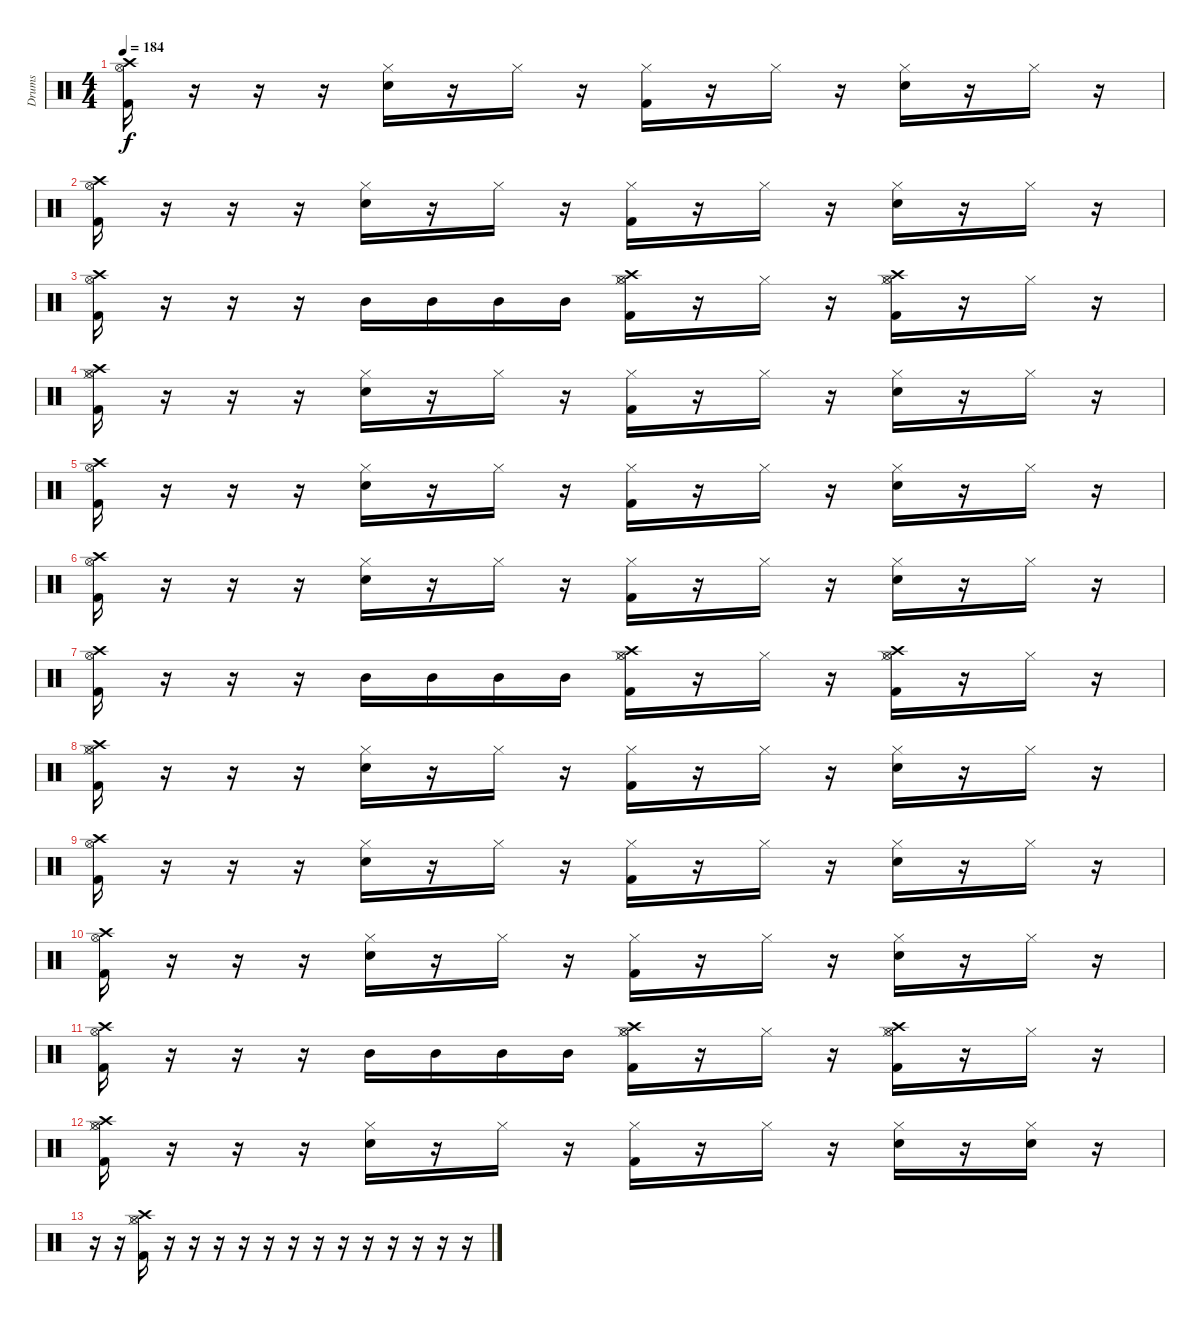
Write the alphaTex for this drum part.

\track ("Drums" "Drums") {instrument percussion}
\staff {score}
\articulation defaults
\ts (4 4)
\tempo 184
\clef neutral
\ks c
("Kick (hit) 2" "Hi-Hat (open)" "Crash high (hit)").16{dy f} r.16 r.16 r.16 ("Electric Snare (hit)" "Hi-Hat (closed)").16 r.16 "Hi-Hat (closed)".16 r.16 ("Kick (hit) 2" "Hi-Hat (closed)").16 r.16 "Hi-Hat (closed)".16 r.16 ("Electric Snare (hit)" "Hi-Hat (closed)").16 r.16 "Hi-Hat (closed)".16 r.16 |
("Kick (hit) 2" "Hi-Hat (open)" "Crash high (hit)").16 r.16 r.16 r.16 ("Electric Snare (hit)" "Hi-Hat (closed)").16 r.16 "Hi-Hat (closed)".16 r.16 ("Kick (hit) 2" "Hi-Hat (closed)").16 r.16 "Hi-Hat (closed)".16 r.16 ("Electric Snare (hit)" "Hi-Hat (closed)").16 r.16 "Hi-Hat (closed)".16 r.16 |
("Kick (hit) 2" "Hi-Hat (open)" "Crash high (hit)").16 r.16 r.16 r.16 "Mid Tom (hit)".16 "Mid Tom (hit)".16 "Mid Tom (hit)".16 "Mid Tom (hit)".16 ("Kick (hit) 2" "Hi-Hat (closed)" "Hi-Hat (open)" "Crash high (hit)").16 r.16 "Hi-Hat (closed)".16 r.16 ("Kick (hit) 2" "Hi-Hat (closed)" "Hi-Hat (open)" "Crash high (hit)").16 r.16 "Hi-Hat (closed)".16 r.16 |
("Kick (hit) 2" "Hi-Hat (closed)" "Hi-Hat (open)" "Crash high (hit)").16 r.16 r.16 r.16 ("Electric Snare (hit)" "Hi-Hat (closed)").16 r.16 "Hi-Hat (closed)".16 r.16 ("Kick (hit) 2" "Hi-Hat (closed)").16 r.16 "Hi-Hat (closed)".16 r.16 ("Electric Snare (hit)" "Hi-Hat (closed)").16 r.16 "Hi-Hat (closed)".16 r.16 |
("Kick (hit) 2" "Hi-Hat (open)" "Crash high (hit)").16 r.16 r.16 r.16 ("Electric Snare (hit)" "Hi-Hat (closed)").16 r.16 "Hi-Hat (closed)".16 r.16 ("Kick (hit) 2" "Hi-Hat (closed)").16 r.16 "Hi-Hat (closed)".16 r.16 ("Electric Snare (hit)" "Hi-Hat (closed)").16 r.16 "Hi-Hat (closed)".16 r.16 |
("Kick (hit) 2" "Hi-Hat (open)" "Crash high (hit)").16 r.16 r.16 r.16 ("Electric Snare (hit)" "Hi-Hat (closed)").16 r.16 "Hi-Hat (closed)".16 r.16 ("Kick (hit) 2" "Hi-Hat (closed)").16 r.16 "Hi-Hat (closed)".16 r.16 ("Electric Snare (hit)" "Hi-Hat (closed)").16 r.16 "Hi-Hat (closed)".16 r.16 |
("Kick (hit) 2" "Hi-Hat (open)" "Crash high (hit)").16 r.16 r.16 r.16 "Mid Tom (hit)".16 "Mid Tom (hit)".16 "Mid Tom (hit)".16 "Mid Tom (hit)".16 ("Kick (hit) 2" "Hi-Hat (closed)" "Hi-Hat (open)" "Crash high (hit)").16 r.16 "Hi-Hat (closed)".16 r.16 ("Kick (hit) 2" "Hi-Hat (closed)" "Hi-Hat (open)" "Crash high (hit)").16 r.16 "Hi-Hat (closed)".16 r.16 |
("Kick (hit) 2" "Hi-Hat (closed)" "Hi-Hat (open)" "Crash high (hit)").16 r.16 r.16 r.16 ("Electric Snare (hit)" "Hi-Hat (closed)").16 r.16 "Hi-Hat (closed)".16 r.16 ("Kick (hit) 2" "Hi-Hat (closed)").16 r.16 "Hi-Hat (closed)".16 r.16 ("Electric Snare (hit)" "Hi-Hat (closed)").16 r.16 "Hi-Hat (closed)".16 r.16 |
("Kick (hit) 2" "Hi-Hat (open)" "Crash high (hit)").16 r.16 r.16 r.16 ("Electric Snare (hit)" "Hi-Hat (closed)").16 r.16 "Hi-Hat (closed)".16 r.16 ("Kick (hit) 2" "Hi-Hat (closed)").16 r.16 "Hi-Hat (closed)".16 r.16 ("Electric Snare (hit)" "Hi-Hat (closed)").16 r.16 "Hi-Hat (closed)".16 r.16 |
("Kick (hit) 2" "Hi-Hat (open)" "Crash high (hit)").16 r.16 r.16 r.16 ("Electric Snare (hit)" "Hi-Hat (closed)").16 r.16 "Hi-Hat (closed)".16 r.16 ("Kick (hit) 2" "Hi-Hat (closed)").16 r.16 "Hi-Hat (closed)".16 r.16 ("Electric Snare (hit)" "Hi-Hat (closed)").16 r.16 "Hi-Hat (closed)".16 r.16 |
("Kick (hit) 2" "Hi-Hat (open)" "Crash high (hit)").16 r.16 r.16 r.16 "Mid Tom (hit)".16 "Mid Tom (hit)".16 "Mid Tom (hit)".16 "Mid Tom (hit)".16 ("Kick (hit) 2" "Hi-Hat (closed)" "Hi-Hat (open)" "Crash high (hit)").16 r.16 "Hi-Hat (closed)".16 r.16 ("Kick (hit) 2" "Hi-Hat (closed)" "Hi-Hat (open)" "Crash high (hit)").16 r.16 "Hi-Hat (closed)".16 r.16 |
("Kick (hit) 2" "Hi-Hat (closed)" "Hi-Hat (open)" "Crash high (hit)").16 r.16 r.16 r.16 ("Electric Snare (hit)" "Hi-Hat (closed)").16 r.16 "Hi-Hat (closed)".16 r.16 ("Kick (hit) 2" "Hi-Hat (closed)").16 r.16 "Hi-Hat (closed)".16 r.16 ("Electric Snare (hit)" "Hi-Hat (closed)").16 r.16 ("Electric Snare (hit)" "Hi-Hat (closed)").16 r.16 |
r.16 r.16 ("Kick (hit) 2" "Hi-Hat (closed)" "Hi-Hat (open)" "Crash high (hit)").16 r.16 r.16 r.16 r.16 r.16 r.16 r.16 r.16 r.16 r.16 r.16 r.16 r.16
